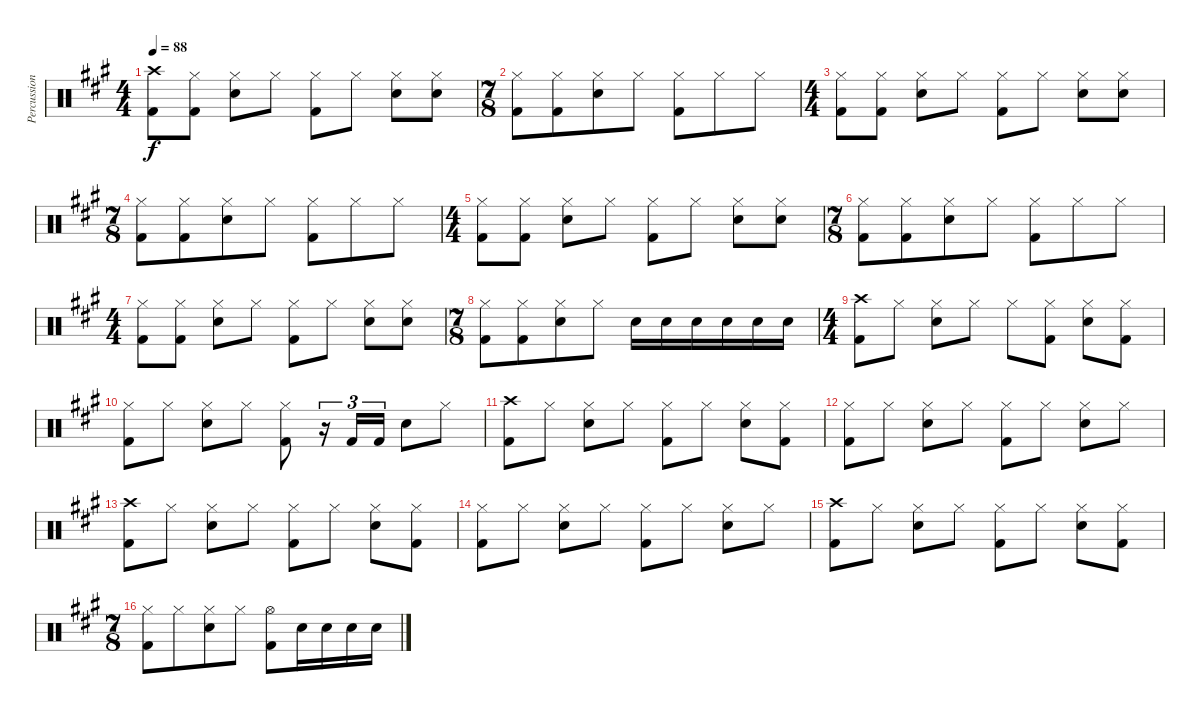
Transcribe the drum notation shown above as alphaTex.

\track ("Percussion" "Percussion") {instrument percussion}
\staff {score}
\articulation defaults
\ts (4 4)
\tempo 88
\clef neutral
\ks a
("Crash high (hit)" "Kick (hit) 2").8{dy f} ("Hi-Hat (closed)" "Kick (hit) 2").8 ("Hi-Hat (closed)" "Snare (hit) 2").8 "Hi-Hat (closed)".8 ("Hi-Hat (closed)" "Kick (hit) 2").8 "Hi-Hat (closed)".8 ("Hi-Hat (closed)" "Snare (hit) 2").8 ("Hi-Hat (closed)" "Snare (hit) 2").8 |
\ts (7 8)
("Hi-Hat (closed)" "Kick (hit) 2").8 ("Hi-Hat (closed)" "Kick (hit) 2").8 ("Hi-Hat (closed)" "Snare (hit) 2").8 "Hi-Hat (closed)".8 ("Hi-Hat (closed)" "Kick (hit) 2").8 "Hi-Hat (closed)".8 "Hi-Hat (closed)".8 |
\ts (4 4)
("Hi-Hat (closed)" "Kick (hit) 2").8 ("Hi-Hat (closed)" "Kick (hit) 2").8 ("Hi-Hat (closed)" "Snare (hit) 2").8 "Hi-Hat (closed)".8 ("Hi-Hat (closed)" "Kick (hit) 2").8 "Hi-Hat (closed)".8 ("Hi-Hat (closed)" "Snare (hit) 2").8 ("Hi-Hat (closed)" "Snare (hit) 2").8 |
\ts (7 8)
("Hi-Hat (closed)" "Kick (hit) 2").8 ("Hi-Hat (closed)" "Kick (hit) 2").8 ("Hi-Hat (closed)" "Snare (hit) 2").8 "Hi-Hat (closed)".8 ("Hi-Hat (closed)" "Kick (hit) 2").8 "Hi-Hat (closed)".8 "Hi-Hat (closed)".8 |
\ts (4 4)
("Hi-Hat (closed)" "Kick (hit) 2").8 ("Hi-Hat (closed)" "Kick (hit) 2").8 ("Hi-Hat (closed)" "Snare (hit) 2").8 "Hi-Hat (closed)".8 ("Hi-Hat (closed)" "Kick (hit) 2").8 "Hi-Hat (closed)".8 ("Hi-Hat (closed)" "Snare (hit) 2").8 ("Hi-Hat (closed)" "Snare (hit) 2").8 |
\ts (7 8)
("Hi-Hat (closed)" "Kick (hit) 2").8 ("Hi-Hat (closed)" "Kick (hit) 2").8 ("Hi-Hat (closed)" "Snare (hit) 2").8 "Hi-Hat (closed)".8 ("Hi-Hat (closed)" "Kick (hit) 2").8 "Hi-Hat (closed)".8 "Hi-Hat (closed)".8 |
\ts (4 4)
("Hi-Hat (closed)" "Kick (hit) 2").8 ("Hi-Hat (closed)" "Kick (hit) 2").8 ("Hi-Hat (closed)" "Snare (hit) 2").8 "Hi-Hat (closed)".8 ("Hi-Hat (closed)" "Kick (hit) 2").8 "Hi-Hat (closed)".8 ("Hi-Hat (closed)" "Snare (hit) 2").8 ("Hi-Hat (closed)" "Snare (hit) 2").8 |
\ts (7 8)
("Hi-Hat (closed)" "Kick (hit) 2").8 ("Hi-Hat (closed)" "Kick (hit) 2").8 ("Hi-Hat (closed)" "Snare (hit) 2").8 "Hi-Hat (closed)".8 "Snare (hit) 2".16 "Snare (hit) 2".16 "Snare (hit) 2".16 "Snare (hit) 2".16 "Snare (hit) 2".16 "Snare (hit) 2".16 |
\ts (4 4)
("Crash high (hit)" "Kick (hit) 2").8 "Hi-Hat (closed)".8 ("Hi-Hat (closed)" "Snare (hit) 2").8 "Hi-Hat (closed)".8 "Hi-Hat (closed)".8 ("Hi-Hat (closed)" "Kick (hit) 2").8 ("Hi-Hat (closed)" "Snare (hit) 2").8 ("Hi-Hat (closed)" "Kick (hit) 2").8 |
("Hi-Hat (closed)" "Kick (hit) 2").8 "Hi-Hat (closed)".8 ("Hi-Hat (closed)" "Snare (hit) 2").8 "Hi-Hat (closed)".8 ("Hi-Hat (closed)" "Kick (hit) 2").8 r.16{tu (3 2)} "Kick (hit) 2".16{tu (3 2)} "Kick (hit) 2".16{tu (3 2)} "Snare (hit) 2".8 "Hi-Hat (closed)".8 |
("Crash high (hit)" "Kick (hit) 2").8 "Hi-Hat (closed)".8 ("Hi-Hat (closed)" "Snare (hit) 2").8 "Hi-Hat (closed)".8 ("Hi-Hat (closed)" "Kick (hit) 2").8 "Hi-Hat (closed)".8 ("Hi-Hat (closed)" "Snare (hit) 2").8 ("Hi-Hat (closed)" "Kick (hit) 2").8 |
("Hi-Hat (closed)" "Kick (hit) 2").8 "Hi-Hat (closed)".8 ("Hi-Hat (closed)" "Snare (hit) 2").8 "Hi-Hat (closed)".8 ("Hi-Hat (closed)" "Kick (hit) 2").8 "Hi-Hat (closed)".8 ("Hi-Hat (closed)" "Snare (hit) 2").8 "Hi-Hat (closed)".8 |
("Crash high (hit)" "Kick (hit) 2").8 "Hi-Hat (closed)".8 ("Hi-Hat (closed)" "Snare (hit) 2").8 "Hi-Hat (closed)".8 ("Hi-Hat (closed)" "Kick (hit) 2").8 "Hi-Hat (closed)".8 ("Hi-Hat (closed)" "Snare (hit) 2").8 ("Hi-Hat (closed)" "Kick (hit) 2").8 |
("Hi-Hat (closed)" "Kick (hit) 2").8 "Hi-Hat (closed)".8 ("Hi-Hat (closed)" "Snare (hit) 2").8 "Hi-Hat (closed)".8 ("Hi-Hat (closed)" "Kick (hit) 2").8 "Hi-Hat (closed)".8 ("Hi-Hat (closed)" "Snare (hit) 2").8 "Hi-Hat (closed)".8 |
("Crash high (hit)" "Kick (hit) 2").8 "Hi-Hat (closed)".8 ("Hi-Hat (closed)" "Snare (hit) 2").8 "Hi-Hat (closed)".8 ("Hi-Hat (closed)" "Kick (hit) 2").8 "Hi-Hat (closed)".8 ("Hi-Hat (closed)" "Snare (hit) 2").8 ("Hi-Hat (closed)" "Kick (hit) 2").8 |
\ts (7 8)
("Hi-Hat (closed)" "Kick (hit) 2").8 "Hi-Hat (closed)".8 ("Hi-Hat (closed)" "Snare (hit) 2").8 "Hi-Hat (closed)".8 ("Hi-Hat (open)" "Kick (hit) 2").8 "Snare (hit) 2".16 "Snare (hit) 2".16 "Snare (hit) 2".16 "Snare (hit) 2".16
